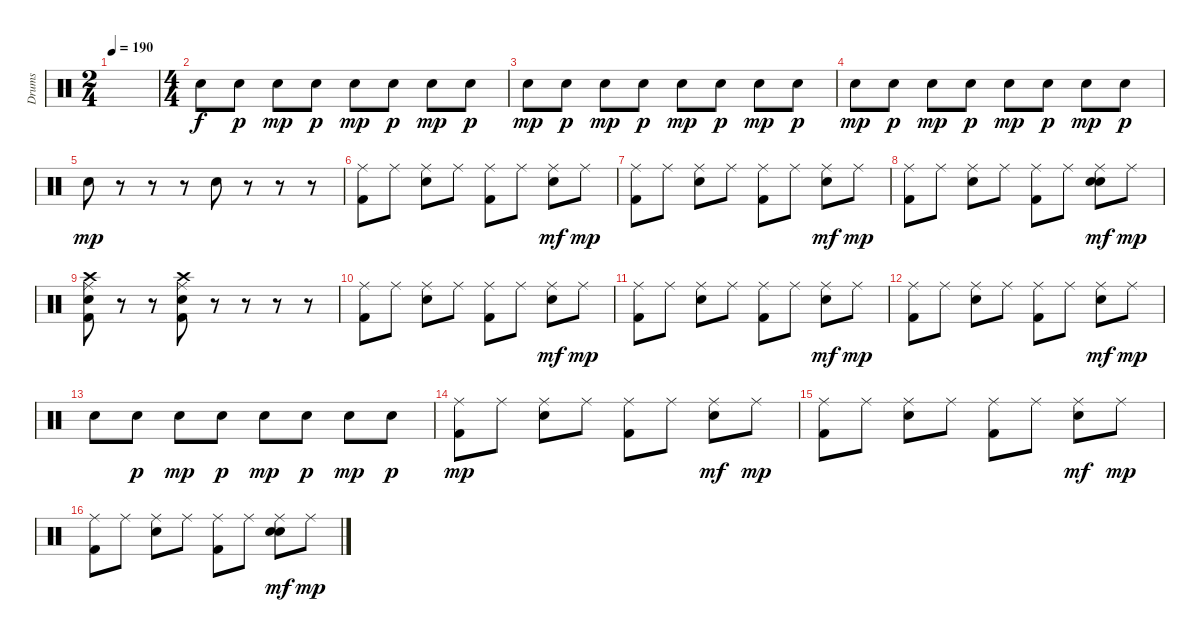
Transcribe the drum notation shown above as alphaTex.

\track ("Drums" "Drums") {instrument percussion}
\staff {score}
\articulation defaults
\ts (2 4)
\tempo 190
\clef neutral
\ks c
|
\ts (4 4)
"Electric Snare (hit)".8 "Electric Snare (hit)".8{dy p} "Electric Snare (hit)".8{dy mp} "Electric Snare (hit)".8{dy p} "Electric Snare (hit)".8{dy mp} "Electric Snare (hit)".8{dy p} "Electric Snare (hit)".8{dy mp} "Electric Snare (hit)".8{dy p} |
"Electric Snare (hit)".8{dy mp} "Electric Snare (hit)".8{dy p} "Electric Snare (hit)".8{dy mp} "Electric Snare (hit)".8{dy p} "Electric Snare (hit)".8{dy mp} "Electric Snare (hit)".8{dy p} "Electric Snare (hit)".8{dy mp} "Electric Snare (hit)".8{dy p} |
"Electric Snare (hit)".8{dy mp} "Electric Snare (hit)".8{dy p} "Electric Snare (hit)".8{dy mp} "Electric Snare (hit)".8{dy p} "Electric Snare (hit)".8{dy mp} "Electric Snare (hit)".8{dy p} "Electric Snare (hit)".8{dy mp} "Electric Snare (hit)".8{dy p} |
"Electric Snare (hit)".8{dy mp} r.8 r.8 r.8 "Electric Snare (hit)".8 r.8 r.8 r.8 |
("Ride (middle)" "Kick (hit) 2").8 "Ride (middle)".8 ("Ride (middle)" "Electric Snare (hit)").8 "Ride (middle)".8 ("Ride (middle)" "Kick (hit) 2").8 "Ride (middle)".8 ("Ride (middle)" "Electric Snare (hit)").8{dy mf} "Ride (middle)".8{dy mp} |
("Ride (middle)" "Kick (hit) 2").8 "Ride (middle)".8 ("Ride (middle)" "Electric Snare (hit)").8 "Ride (middle)".8 ("Ride (middle)" "Kick (hit) 2").8 "Ride (middle)".8 ("Ride (middle)" "Electric Snare (hit)").8{dy mf} "Ride (middle)".8{dy mp} |
("Ride (middle)" "Kick (hit) 2").8 "Ride (middle)".8 ("Ride (middle)" "Electric Snare (hit)").8 "Ride (middle)".8 ("Ride (middle)" "Kick (hit) 2").8 "Ride (middle)".8 ("Ride (middle)" "Electric Snare (hit)" "Snare (hit) 2").8{dy mf} "Ride (middle)".8{dy mp} |
("Ride (middle)" "Crash high (hit)" "Electric Snare (hit)" "Kick (hit) 2").8 r.8 r.8 ("Ride (middle)" "Crash high (hit)" "Electric Snare (hit)" "Kick (hit) 2").8 r.8 r.8 r.8 r.8 |
("Ride (middle)" "Kick (hit) 2").8 "Ride (middle)".8 ("Ride (middle)" "Electric Snare (hit)").8 "Ride (middle)".8 ("Ride (middle)" "Kick (hit) 2").8 "Ride (middle)".8 ("Ride (middle)" "Electric Snare (hit)").8{dy mf} "Ride (middle)".8{dy mp} |
("Ride (middle)" "Kick (hit) 2").8 "Ride (middle)".8 ("Ride (middle)" "Electric Snare (hit)").8 "Ride (middle)".8 ("Ride (middle)" "Kick (hit) 2").8 "Ride (middle)".8 ("Ride (middle)" "Electric Snare (hit)").8{dy mf} "Ride (middle)".8{dy mp} |
("Ride (middle)" "Kick (hit) 2").8 "Ride (middle)".8 ("Ride (middle)" "Electric Snare (hit)").8 "Ride (middle)".8 ("Ride (middle)" "Kick (hit) 2").8 "Ride (middle)".8 ("Ride (middle)" "Electric Snare (hit)").8{dy mf} "Ride (middle)".8{dy mp} |
"Electric Snare (hit)".8 "Electric Snare (hit)".8{dy p} "Electric Snare (hit)".8{dy mp} "Electric Snare (hit)".8{dy p} "Electric Snare (hit)".8{dy mp} "Electric Snare (hit)".8{dy p} "Electric Snare (hit)".8{dy mp} "Electric Snare (hit)".8{dy p} |
("Ride (middle)" "Kick (hit) 2").8{dy mp} "Ride (middle)".8 ("Ride (middle)" "Electric Snare (hit)").8 "Ride (middle)".8 ("Ride (middle)" "Kick (hit) 2").8 "Ride (middle)".8 ("Ride (middle)" "Electric Snare (hit)").8{dy mf} "Ride (middle)".8{dy mp} |
("Ride (middle)" "Kick (hit) 2").8 "Ride (middle)".8 ("Ride (middle)" "Electric Snare (hit)").8 "Ride (middle)".8 ("Ride (middle)" "Kick (hit) 2").8 "Ride (middle)".8 ("Ride (middle)" "Electric Snare (hit)").8{dy mf} "Ride (middle)".8{dy mp} |
("Ride (middle)" "Kick (hit) 2").8 "Ride (middle)".8 ("Ride (middle)" "Electric Snare (hit)").8 "Ride (middle)".8 ("Ride (middle)" "Kick (hit) 2").8 "Ride (middle)".8 ("Ride (middle)" "Electric Snare (hit)" "Snare (hit) 2").8{dy mf} "Ride (middle)".8{dy mp}
